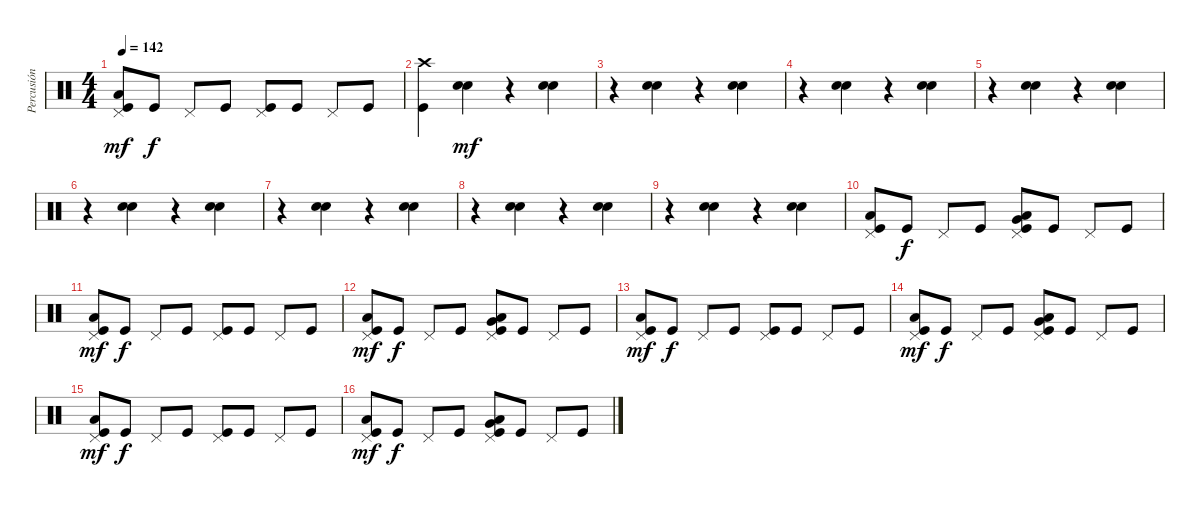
\track ("Percusión" "Percusión") {instrument percussion}
\staff {score}
\articulation defaults
\ts (4 4)
\tempo 142
\clef neutral
\ks c
("Pedal Hi-Hat (hit)" "Kick (hit)" "Low Floor Tom (hit)").8{dy mf} "Kick (hit)".8{dy f} "Pedal Hi-Hat (hit)".8 "Kick (hit)".8 ("Pedal Hi-Hat (hit)" "Kick (hit)").8 "Kick (hit)".8 "Pedal Hi-Hat (hit)".8 "Kick (hit)".8 |
("Crash high (hit)" "Kick (hit)").4 ("Hand Clap (hit)" "Snare (hit) 2").4{dy mf} r.4 ("Hand Clap (hit)" "Snare (hit) 2").4 |
r.4 ("Hand Clap (hit)" "Snare (hit) 2").4 r.4 ("Hand Clap (hit)" "Snare (hit) 2").4 |
r.4 ("Hand Clap (hit)" "Snare (hit) 2").4 r.4 ("Hand Clap (hit)" "Snare (hit) 2").4 |
r.4 ("Hand Clap (hit)" "Snare (hit) 2").4 r.4 ("Hand Clap (hit)" "Snare (hit) 2").4 |
r.4 ("Hand Clap (hit)" "Snare (hit) 2").4 r.4 ("Hand Clap (hit)" "Snare (hit) 2").4 |
r.4 ("Hand Clap (hit)" "Snare (hit) 2").4 r.4 ("Hand Clap (hit)" "Snare (hit) 2").4 |
r.4 ("Hand Clap (hit)" "Snare (hit) 2").4 r.4 ("Hand Clap (hit)" "Snare (hit) 2").4 |
r.4 ("Hand Clap (hit)" "Snare (hit) 2").4 r.4 ("Hand Clap (hit)" "Snare (hit) 2").4 |
("Pedal Hi-Hat (hit)" "Kick (hit)" "Low Floor Tom (hit)").8 "Kick (hit)".8{dy f} "Pedal Hi-Hat (hit)".8 "Kick (hit)".8 ("Pedal Hi-Hat (hit)" "Kick (hit)" "Low Tom (hit)" "Very Low Tom (hit)").8 "Kick (hit)".8 "Pedal Hi-Hat (hit)".8 "Kick (hit)".8 |
("Pedal Hi-Hat (hit)" "Kick (hit)" "Low Floor Tom (hit)").8{dy mf} "Kick (hit)".8{dy f} "Pedal Hi-Hat (hit)".8 "Kick (hit)".8 ("Pedal Hi-Hat (hit)" "Kick (hit)").8 "Kick (hit)".8 "Pedal Hi-Hat (hit)".8 "Kick (hit)".8 |
("Pedal Hi-Hat (hit)" "Kick (hit)" "Low Floor Tom (hit)").8{dy mf} "Kick (hit)".8{dy f} "Pedal Hi-Hat (hit)".8 "Kick (hit)".8 ("Pedal Hi-Hat (hit)" "Kick (hit)" "Low Tom (hit)" "Very Low Tom (hit)").8 "Kick (hit)".8 "Pedal Hi-Hat (hit)".8 "Kick (hit)".8 |
("Pedal Hi-Hat (hit)" "Kick (hit)" "Low Floor Tom (hit)").8{dy mf} "Kick (hit)".8{dy f} "Pedal Hi-Hat (hit)".8 "Kick (hit)".8 ("Pedal Hi-Hat (hit)" "Kick (hit)").8 "Kick (hit)".8 "Pedal Hi-Hat (hit)".8 "Kick (hit)".8 |
("Pedal Hi-Hat (hit)" "Kick (hit)" "Low Floor Tom (hit)").8{dy mf} "Kick (hit)".8{dy f} "Pedal Hi-Hat (hit)".8 "Kick (hit)".8 ("Pedal Hi-Hat (hit)" "Kick (hit)" "Low Tom (hit)" "Very Low Tom (hit)").8 "Kick (hit)".8 "Pedal Hi-Hat (hit)".8 "Kick (hit)".8 |
("Pedal Hi-Hat (hit)" "Kick (hit)" "Low Floor Tom (hit)").8{dy mf} "Kick (hit)".8{dy f} "Pedal Hi-Hat (hit)".8 "Kick (hit)".8 ("Pedal Hi-Hat (hit)" "Kick (hit)").8 "Kick (hit)".8 "Pedal Hi-Hat (hit)".8 "Kick (hit)".8 |
("Pedal Hi-Hat (hit)" "Kick (hit)" "Low Floor Tom (hit)").8{dy mf} "Kick (hit)".8{dy f} "Pedal Hi-Hat (hit)".8 "Kick (hit)".8 ("Pedal Hi-Hat (hit)" "Kick (hit)" "Low Tom (hit)" "Very Low Tom (hit)").8 "Kick (hit)".8 "Pedal Hi-Hat (hit)".8 "Kick (hit)".8
